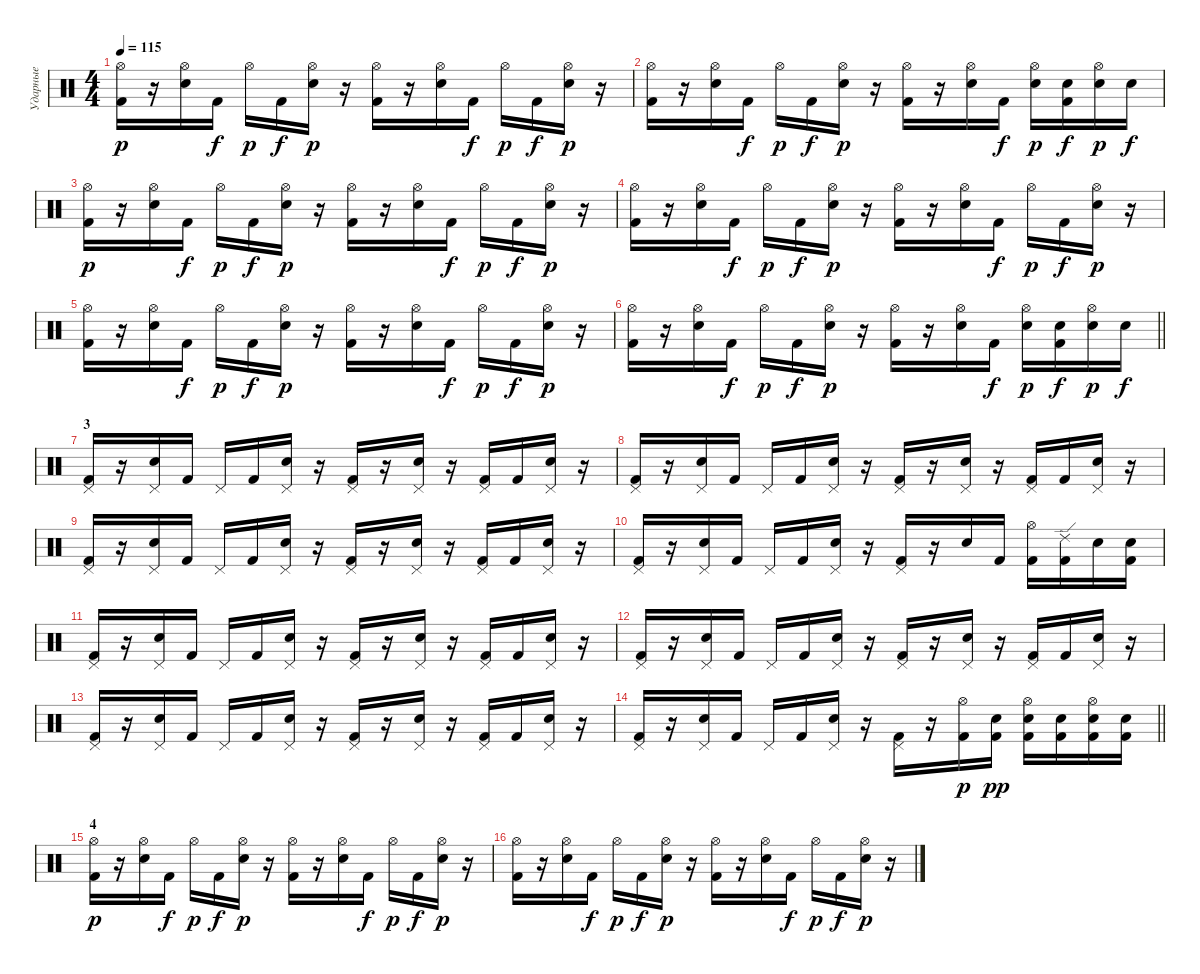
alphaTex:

\track ("Ударные" "Ударные") {instrument percussion}
\staff {score}
\articulation defaults
\ts (4 4)
\tempo 115
\clef neutral
\ks c
("Hi-Hat (open)" "Kick (hit) 2").16{dy p} r.16 ("Hi-Hat (open)" "Snare (hit) 2").16 "Kick (hit) 2".16{dy f} "Hi-Hat (open)".16{dy p} "Kick (hit) 2".16{dy f} ("Hi-Hat (open)" "Snare (hit) 2").16{dy p} r.16 ("Hi-Hat (open)" "Kick (hit) 2").16 r.16 ("Hi-Hat (open)" "Snare (hit) 2").16 "Kick (hit) 2".16{dy f} "Hi-Hat (open)".16{dy p} "Kick (hit) 2".16{dy f} ("Hi-Hat (open)" "Snare (hit) 2").16{dy p} r.16 |
("Hi-Hat (open)" "Kick (hit) 2").16 r.16 ("Hi-Hat (open)" "Snare (hit) 2").16 "Kick (hit) 2".16{dy f} "Hi-Hat (open)".16{dy p} "Kick (hit) 2".16{dy f} ("Hi-Hat (open)" "Snare (hit) 2").16{dy p} r.16 ("Hi-Hat (open)" "Kick (hit) 2").16 r.16 ("Hi-Hat (open)" "Snare (hit) 2").16 "Kick (hit) 2".16{dy f} ("Hi-Hat (open)" "Snare (hit) 2").16{dy p} ("Snare (hit) 2" "Kick (hit) 2").16{dy f} ("Hi-Hat (open)" "Snare (hit) 2").16{dy p} "Snare (hit) 2".16{dy f} |
("Hi-Hat (open)" "Kick (hit) 2").16{dy p} r.16 ("Hi-Hat (open)" "Snare (hit) 2").16 "Kick (hit) 2".16{dy f} "Hi-Hat (open)".16{dy p} "Kick (hit) 2".16{dy f} ("Hi-Hat (open)" "Snare (hit) 2").16{dy p} r.16 ("Hi-Hat (open)" "Kick (hit) 2").16 r.16 ("Hi-Hat (open)" "Snare (hit) 2").16 "Kick (hit) 2".16{dy f} "Hi-Hat (open)".16{dy p} "Kick (hit) 2".16{dy f} ("Hi-Hat (open)" "Snare (hit) 2").16{dy p} r.16 |
("Hi-Hat (open)" "Kick (hit) 2").16 r.16 ("Hi-Hat (open)" "Snare (hit) 2").16 "Kick (hit) 2".16{dy f} "Hi-Hat (open)".16{dy p} "Kick (hit) 2".16{dy f} ("Hi-Hat (open)" "Snare (hit) 2").16{dy p} r.16 ("Hi-Hat (open)" "Kick (hit) 2").16 r.16 ("Hi-Hat (open)" "Snare (hit) 2").16 "Kick (hit) 2".16{dy f} "Hi-Hat (open)".16{dy p} "Kick (hit) 2".16{dy f} ("Hi-Hat (open)" "Snare (hit) 2").16{dy p} r.16 |
("Hi-Hat (open)" "Kick (hit) 2").16 r.16 ("Hi-Hat (open)" "Snare (hit) 2").16 "Kick (hit) 2".16{dy f} "Hi-Hat (open)".16{dy p} "Kick (hit) 2".16{dy f} ("Hi-Hat (open)" "Snare (hit) 2").16{dy p} r.16 ("Hi-Hat (open)" "Kick (hit) 2").16 r.16 ("Hi-Hat (open)" "Snare (hit) 2").16 "Kick (hit) 2".16{dy f} "Hi-Hat (open)".16{dy p} "Kick (hit) 2".16{dy f} ("Hi-Hat (open)" "Snare (hit) 2").16{dy p} r.16 |
\barLineRight lightlight
("Hi-Hat (open)" "Kick (hit) 2").16 r.16 ("Hi-Hat (open)" "Snare (hit) 2").16 "Kick (hit) 2".16{dy f} "Hi-Hat (open)".16{dy p} "Kick (hit) 2".16{dy f} ("Hi-Hat (open)" "Snare (hit) 2").16{dy p} r.16 ("Hi-Hat (open)" "Kick (hit) 2").16 r.16 ("Hi-Hat (open)" "Snare (hit) 2").16 "Kick (hit) 2".16{dy f} ("Hi-Hat (open)" "Snare (hit) 2").16{dy p} ("Snare (hit) 2" "Kick (hit) 2").16{dy f} ("Hi-Hat (open)" "Snare (hit) 2").16{dy p} "Snare (hit) 2".16{dy f} |
\section ("" "3")
("Pedal Hi-Hat (hit)" "Kick (hit) 2").16 r.16 ("Pedal Hi-Hat (hit)" "Snare (hit) 2").16 "Kick (hit) 2".16 "Pedal Hi-Hat (hit)".16 "Kick (hit) 2".16 ("Pedal Hi-Hat (hit)" "Snare (hit) 2").16 r.16 ("Pedal Hi-Hat (hit)" "Kick (hit) 2").16 r.16 ("Pedal Hi-Hat (hit)" "Snare (hit) 2").16 r.16 ("Pedal Hi-Hat (hit)" "Kick (hit) 2").16 "Kick (hit) 2".16 ("Pedal Hi-Hat (hit)" "Snare (hit) 2").16 r.16 |
("Pedal Hi-Hat (hit)" "Kick (hit) 2").16 r.16 ("Pedal Hi-Hat (hit)" "Snare (hit) 2").16 "Kick (hit) 2".16 "Pedal Hi-Hat (hit)".16 "Kick (hit) 2".16 ("Pedal Hi-Hat (hit)" "Snare (hit) 2").16 r.16 ("Pedal Hi-Hat (hit)" "Kick (hit) 2").16 r.16 ("Pedal Hi-Hat (hit)" "Snare (hit) 2").16 r.16 ("Pedal Hi-Hat (hit)" "Kick (hit) 2").16 "Kick (hit) 2".16 ("Pedal Hi-Hat (hit)" "Snare (hit) 2").16 r.16 |
("Pedal Hi-Hat (hit)" "Kick (hit) 2").16 r.16 ("Pedal Hi-Hat (hit)" "Snare (hit) 2").16 "Kick (hit) 2".16 "Pedal Hi-Hat (hit)".16 "Kick (hit) 2".16 ("Pedal Hi-Hat (hit)" "Snare (hit) 2").16 r.16 ("Pedal Hi-Hat (hit)" "Kick (hit) 2").16 r.16 ("Pedal Hi-Hat (hit)" "Snare (hit) 2").16 r.16 ("Pedal Hi-Hat (hit)" "Kick (hit) 2").16 "Kick (hit) 2".16 ("Pedal Hi-Hat (hit)" "Snare (hit) 2").16 r.16 |
("Pedal Hi-Hat (hit)" "Kick (hit) 2").16 r.16 ("Pedal Hi-Hat (hit)" "Snare (hit) 2").16 "Kick (hit) 2".16 "Pedal Hi-Hat (hit)".16 "Kick (hit) 2".16 ("Pedal Hi-Hat (hit)" "Snare (hit) 2").16 r.16 ("Pedal Hi-Hat (hit)" "Kick (hit) 2").16 r.16 "Snare (hit) 2".16 "Kick (hit) 2".16 ("Hi-Hat (open)" "Kick (hit) 2").16 ("Ride (edge) 2" "Kick (hit) 2").16 "Snare (hit) 2".16 ("Snare (hit) 2" "Kick (hit) 2").16 |
("Pedal Hi-Hat (hit)" "Kick (hit) 2").16 r.16 ("Pedal Hi-Hat (hit)" "Snare (hit) 2").16 "Kick (hit) 2".16 "Pedal Hi-Hat (hit)".16 "Kick (hit) 2".16 ("Pedal Hi-Hat (hit)" "Snare (hit) 2").16 r.16 ("Pedal Hi-Hat (hit)" "Kick (hit) 2").16 r.16 ("Pedal Hi-Hat (hit)" "Snare (hit) 2").16 r.16 ("Pedal Hi-Hat (hit)" "Kick (hit) 2").16 "Kick (hit) 2".16 ("Pedal Hi-Hat (hit)" "Snare (hit) 2").16 r.16 |
("Pedal Hi-Hat (hit)" "Kick (hit) 2").16 r.16 ("Pedal Hi-Hat (hit)" "Snare (hit) 2").16 "Kick (hit) 2".16 "Pedal Hi-Hat (hit)".16 "Kick (hit) 2".16 ("Pedal Hi-Hat (hit)" "Snare (hit) 2").16 r.16 ("Pedal Hi-Hat (hit)" "Kick (hit) 2").16 r.16 ("Pedal Hi-Hat (hit)" "Snare (hit) 2").16 r.16 ("Pedal Hi-Hat (hit)" "Kick (hit) 2").16 "Kick (hit) 2".16 ("Pedal Hi-Hat (hit)" "Snare (hit) 2").16 r.16 |
("Pedal Hi-Hat (hit)" "Kick (hit) 2").16 r.16 ("Pedal Hi-Hat (hit)" "Snare (hit) 2").16 "Kick (hit) 2".16 "Pedal Hi-Hat (hit)".16 "Kick (hit) 2".16 ("Pedal Hi-Hat (hit)" "Snare (hit) 2").16 r.16 ("Pedal Hi-Hat (hit)" "Kick (hit) 2").16 r.16 ("Pedal Hi-Hat (hit)" "Snare (hit) 2").16 r.16 ("Pedal Hi-Hat (hit)" "Kick (hit) 2").16 "Kick (hit) 2".16 ("Pedal Hi-Hat (hit)" "Snare (hit) 2").16 r.16 |
\barLineRight lightlight
("Pedal Hi-Hat (hit)" "Kick (hit) 2").16 r.16 ("Pedal Hi-Hat (hit)" "Snare (hit) 2").16 "Kick (hit) 2".16 "Pedal Hi-Hat (hit)".16 "Kick (hit) 2".16 ("Pedal Hi-Hat (hit)" "Snare (hit) 2").16 r.16 ("Pedal Hi-Hat (hit)" "Kick (hit) 2").16 r.16 ("Hi-Hat (open)" "Kick (hit) 2").16{dy p} ("Snare (hit) 2" "Kick (hit) 2").16{dy pp} ("Hi-Hat (open)" "Snare (hit) 2" "Kick (hit) 2").16 ("Snare (hit) 2" "Kick (hit) 2").16 ("Hi-Hat (open)" "Snare (hit) 2" "Kick (hit) 2").16 ("Snare (hit) 2" "Kick (hit) 2").16 |
\section ("" "4")
("Hi-Hat (open)" "Kick (hit) 2").16{dy p} r.16 ("Hi-Hat (open)" "Snare (hit) 2").16 "Kick (hit) 2".16{dy f} "Hi-Hat (open)".16{dy p} "Kick (hit) 2".16{dy f} ("Hi-Hat (open)" "Snare (hit) 2").16{dy p} r.16 ("Hi-Hat (open)" "Kick (hit) 2").16 r.16 ("Hi-Hat (open)" "Snare (hit) 2").16 "Kick (hit) 2".16{dy f} "Hi-Hat (open)".16{dy p} "Kick (hit) 2".16{dy f} ("Hi-Hat (open)" "Snare (hit) 2").16{dy p} r.16 |
("Hi-Hat (open)" "Kick (hit) 2").16 r.16 ("Hi-Hat (open)" "Snare (hit) 2").16 "Kick (hit) 2".16{dy f} "Hi-Hat (open)".16{dy p} "Kick (hit) 2".16{dy f} ("Hi-Hat (open)" "Snare (hit) 2").16{dy p} r.16 ("Hi-Hat (open)" "Kick (hit) 2").16 r.16 ("Hi-Hat (open)" "Snare (hit) 2").16 "Kick (hit) 2".16{dy f} "Hi-Hat (open)".16{dy p} "Kick (hit) 2".16{dy f} ("Hi-Hat (open)" "Snare (hit) 2").16{dy p} r.16
